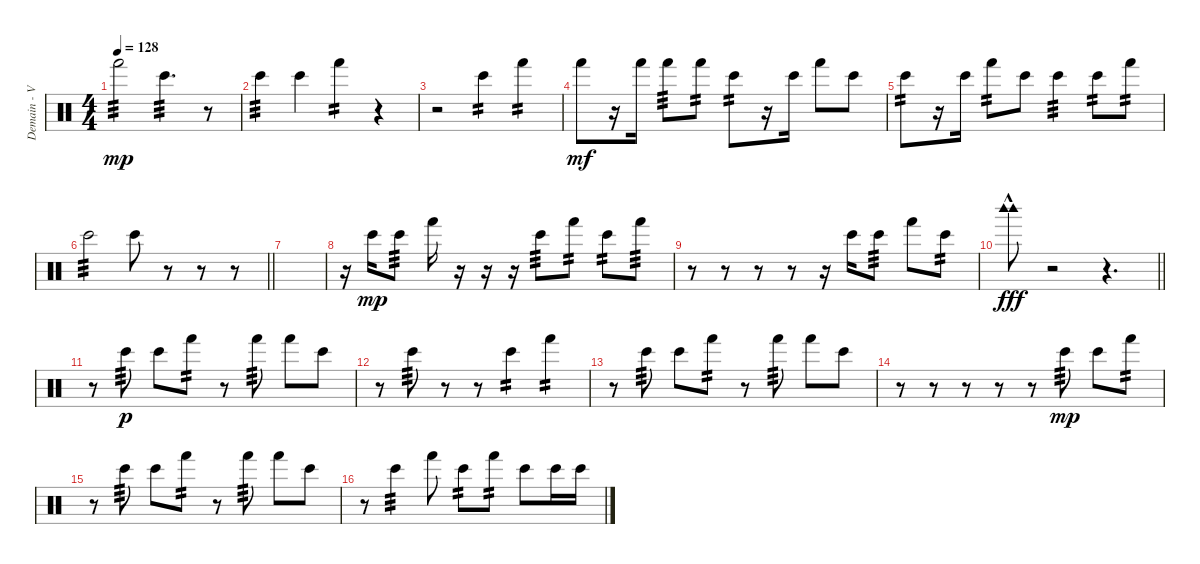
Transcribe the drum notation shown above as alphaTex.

\track ("Demain - Various Perc." "Demain - V") {instrument percussion}
\staff {score}
\articulation defaults
\ts (4 4)
\tempo 128
\clef neutral
\ks c "Hand (hit)".2{tp 3 dy mp} "Bongo High (hit)".4{d tp 3}
r.8 |
"Bongo High (hit)".4{tp 3} "Bongo High (hit)".4 "Hand (hit)".4{tp 2} r.4 |
r.2 "Bongo High (hit)".4{tp 2} "Hand (hit)".4{tp 2} |
"Hand (hit)".8{dy mf} r.16 "Hand (hit)".16 "Hand (hit)".8{tp 3} "Hand (hit)".8{tp 2} "Bongo High (hit)".8{tp 2} r.16 "Bongo High (hit)".16 "Hand (hit)".8 "Bongo High (hit)".8 |
"Bongo High (hit)".8{tp 2} r.16 "Bongo High (hit)".16 "Hand (hit)".8{tp 2} "Bongo High (hit)".8 "Bongo High (hit)".4{tp 3} "Bongo High (hit)".8{tp 2} "Hand (hit)".8{tp 2} |
\barLineRight lightlight "Bongo High (hit)".2{tp 3} "Bongo High (hit)".8
r.8 r.8 r.8 |
|
r.16 "Bongo High (hit)".16{dy mp} "Bongo High (hit)".8{tp 3} "Hand (hit)".16 r.16 r.16 r.16 "Bongo High (hit)".8{tp 3} "Hand (hit)".8{tp 2} "Bongo High (hit)".8{tp 2} "Hand (hit)".8{tp 3} |
r.8 r.8 r.8 r.8 r.16 "Bongo High (hit)".16 "Bongo High (hit)".8{tp 3} "Hand (hit)".8 "Bongo High (hit)".8{tp 2} |
\barLineRight lightlight
("Woodblock high (hit)"{hac} "Woodblock high (hit)"{hac}).8{dy fff} r.2 r.4{d} |
r.8 "Bongo High (hit)".8{tp 3 dy p} "Bongo High (hit)".8 "Hand (hit)".8{tp 2} r.8 "Hand (hit)".8{tp 3} "Hand (hit)".8 "Bongo High (hit)".8 |
r.8 "Bongo High (hit)".8{tp 3} r.8 r.8 "Bongo High (hit)".4{tp 2} "Hand (hit)".4{tp 2} |
r.8 "Bongo High (hit)".8{tp 3} "Bongo High (hit)".8 "Hand (hit)".8{tp 2} r.8 "Hand (hit)".8{tp 3} "Hand (hit)".8 "Bongo High (hit)".8 |
r.8 r.8 r.8 r.8 r.8 "Bongo High (hit)".8{tp 3 dy mp} "Bongo High (hit)".8 "Hand (hit)".8{tp 2} |
r.8 "Bongo High (hit)".8{tp 3} "Bongo High (hit)".8 "Hand (hit)".8{tp 2} r.8 "Hand (hit)".8{tp 3} "Hand (hit)".8 "Bongo High (hit)".8 |
r.8 "Bongo High (hit)".4{tp 3} "Hand (hit)".8 "Bongo High (hit)".8{tp 2} "Hand (hit)".8{tp 2} "Bongo High (hit)".8 "Bongo High (hit)".16 "Bongo High (hit)".16
